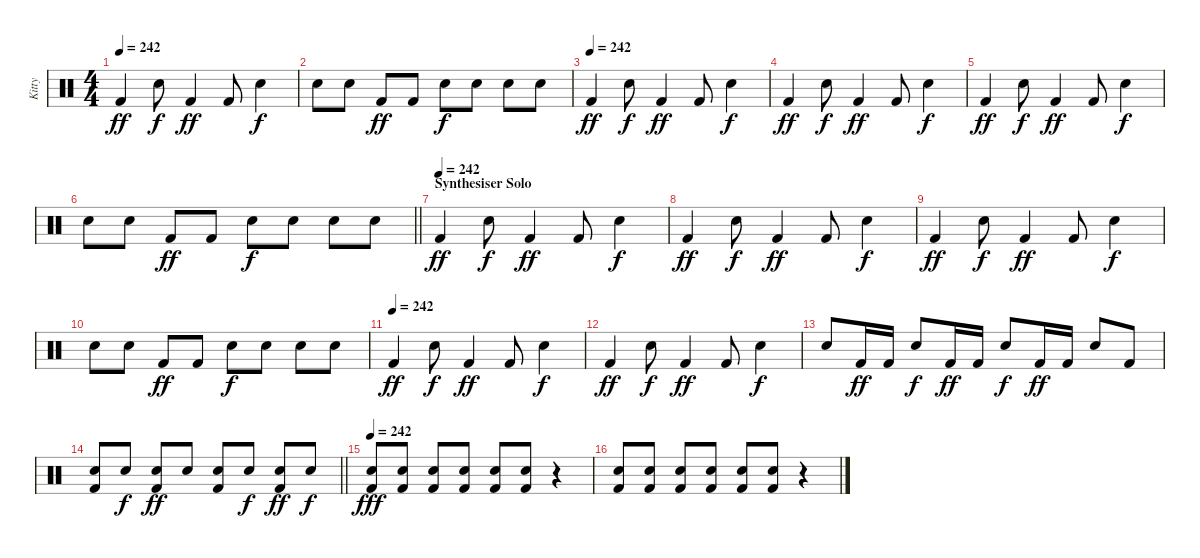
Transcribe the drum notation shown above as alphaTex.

\track ("Kitty" "Kitty") {instrument percussion}
\staff {score}
\articulation defaults
\ts (4 4)
\tempo 242
\clef neutral
\ks c "Kick (hit) 2".4{dy ff} "Electric Snare (hit)".8{dy f} "Kick (hit) 2".4{dy ff} "Kick (hit) 2".8 "Electric Snare (hit)".4{dy f}
|
"Electric Snare (hit)".8{volume 15} "Electric Snare (hit)".8 "Kick (hit) 2".8{dy ff} "Kick (hit) 2".8 "Electric Snare (hit)".8{dy f} "Electric Snare (hit)".8 "Electric Snare (hit)".8 "Electric Snare (hit)".8 |
\tempo (242)
"Kick (hit) 2".4{dy ff volume 15} "Electric Snare (hit)".8{dy f} "Kick (hit) 2".4{dy ff} "Kick (hit) 2".8 "Electric Snare (hit)".4{dy f} |
"Kick (hit) 2".4{dy ff} "Electric Snare (hit)".8{dy f} "Kick (hit) 2".4{dy ff} "Kick (hit) 2".8 "Electric Snare (hit)".4{dy f} |
"Kick (hit) 2".4{dy ff} "Electric Snare (hit)".8{dy f} "Kick (hit) 2".4{dy ff} "Kick (hit) 2".8 "Electric Snare (hit)".4{dy f} |
\barLineRight lightlight "Electric Snare (hit)".8{volume 14} "Electric Snare (hit)".8 "Kick (hit) 2".8{dy ff} "Kick (hit) 2".8 "Electric Snare (hit)".8{dy f} "Electric Snare (hit)".8 "Electric Snare (hit)".8 "Electric Snare (hit)".8
|
\section ("" "Synthesiser Solo")
\tempo (242)
"Kick (hit) 2".4{dy ff volume 14} "Electric Snare (hit)".8{dy f} "Kick (hit) 2".4{dy ff} "Kick (hit) 2".8 "Electric Snare (hit)".4{dy f} |
"Kick (hit) 2".4{dy ff} "Electric Snare (hit)".8{dy f} "Kick (hit) 2".4{dy ff} "Kick (hit) 2".8 "Electric Snare (hit)".4{dy f} |
"Kick (hit) 2".4{dy ff} "Electric Snare (hit)".8{dy f} "Kick (hit) 2".4{dy ff} "Kick (hit) 2".8 "Electric Snare (hit)".4{dy f} |
"Electric Snare (hit)".8{volume 14} "Electric Snare (hit)".8 "Kick (hit) 2".8{dy ff} "Kick (hit) 2".8 "Electric Snare (hit)".8{dy f} "Electric Snare (hit)".8 "Electric Snare (hit)".8 "Electric Snare (hit)".8 |
\tempo (242)
"Kick (hit) 2".4{dy ff volume 14} "Electric Snare (hit)".8{dy f} "Kick (hit) 2".4{dy ff} "Kick (hit) 2".8 "Electric Snare (hit)".4{dy f} |
"Kick (hit) 2".4{dy ff} "Electric Snare (hit)".8{dy f} "Kick (hit) 2".4{dy ff} "Kick (hit) 2".8 "Electric Snare (hit)".4{dy f} |
"Electric Snare (hit)".8 "Kick (hit) 2".16{dy ff} "Kick (hit) 2".16 "Snare (hit) 2".8{dy f} "Kick (hit) 2".16{dy ff} "Kick (hit) 2".16 "Electric Snare (hit)".8{dy f} "Kick (hit) 2".16{dy ff} "Kick (hit) 2".16 "Snare (hit) 2".8 "Kick (hit) 2".8 |
\barLineRight lightlight
("Electric Snare (hit)" "Kick (hit) 2").8{volume 15} "Electric Snare (hit)".8{dy f} ("Snare (hit) 2" "Kick (hit) 2").8{dy ff} "Snare (hit) 2".8 ("Electric Snare (hit)" "Kick (hit) 2").8 "Electric Snare (hit)".8{dy f} ("Electric Snare (hit)" "Kick (hit) 2").8{dy ff} "Electric Snare (hit)".8{dy f} |
\tempo 242
("Snare (hit) 2" "Kick (hit) 2").8{dy fff} ("Snare (hit) 2" "Kick (hit) 2").8 ("Snare (hit) 2" "Kick (hit) 2").8 ("Snare (hit) 2" "Kick (hit) 2").8 ("Snare (hit) 2" "Kick (hit) 2").8 ("Snare (hit) 2" "Kick (hit) 2").8 r.4 |
("Snare (hit) 2" "Kick (hit) 2").8 ("Snare (hit) 2" "Kick (hit) 2").8 ("Snare (hit) 2" "Kick (hit) 2").8 ("Snare (hit) 2" "Kick (hit) 2").8 ("Snare (hit) 2" "Kick (hit) 2").8 ("Snare (hit) 2" "Kick (hit) 2").8 r.4
